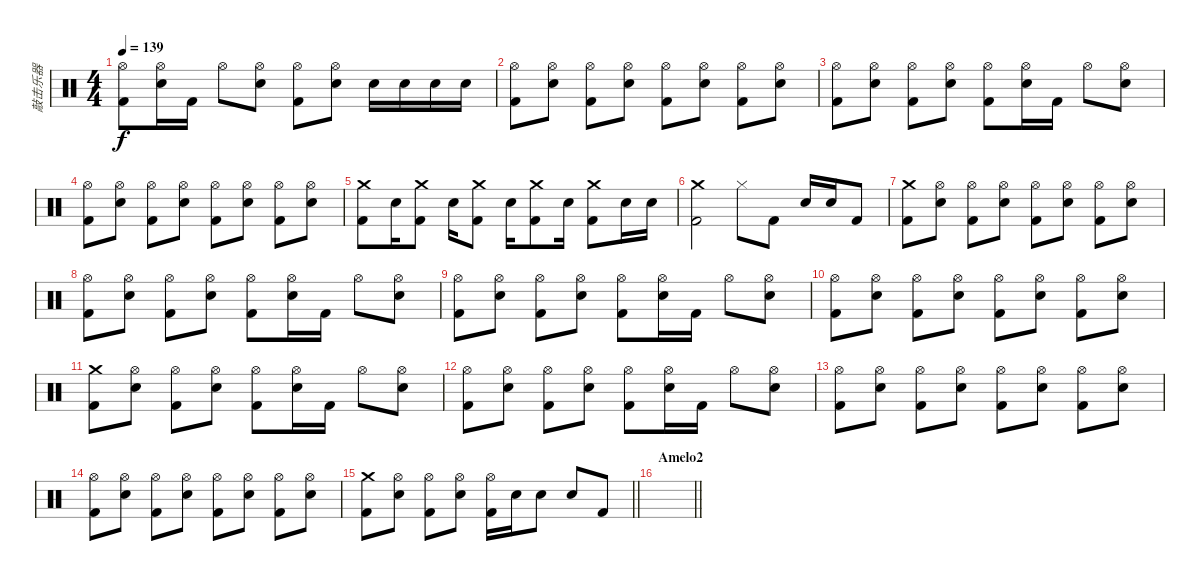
\track ("敲击乐器" "敲击乐器") {instrument percussion}
\staff {score}
\articulation defaults
\ts (4 4)
\tempo 139
\clef neutral
\ks c
("Hi-Hat (open)" "Kick (hit) 2").8{dy f} ("Hi-Hat (open)" "Electric Snare (hit)").16 "Kick (hit) 2".16 "Hi-Hat (open)".8 ("Hi-Hat (open)" "Electric Snare (hit)").8 ("Hi-Hat (open)" "Kick (hit) 2").8 ("Hi-Hat (open)" "Electric Snare (hit)").8 "Electric Snare (hit)".16 "Electric Snare (hit)".16 "Electric Snare (hit)".16 "Electric Snare (hit)".16 |
("Hi-Hat (open)" "Kick (hit) 2").8 ("Hi-Hat (open)" "Electric Snare (hit)").8 ("Hi-Hat (open)" "Kick (hit) 2").8 ("Hi-Hat (open)" "Electric Snare (hit)").8 ("Hi-Hat (open)" "Kick (hit) 2").8 ("Hi-Hat (open)" "Electric Snare (hit)").8 ("Hi-Hat (open)" "Kick (hit) 2").8 ("Hi-Hat (open)" "Electric Snare (hit)").8 |
("Hi-Hat (open)" "Kick (hit) 2").8 ("Hi-Hat (open)" "Electric Snare (hit)").8 ("Hi-Hat (open)" "Kick (hit) 2").8 ("Hi-Hat (open)" "Electric Snare (hit)").8 ("Hi-Hat (open)" "Kick (hit) 2").8 ("Hi-Hat (open)" "Electric Snare (hit)").16 "Kick (hit) 2".16 "Hi-Hat (open)".8 ("Hi-Hat (open)" "Electric Snare (hit)").8 |
("Hi-Hat (open)" "Kick (hit) 2").8 ("Hi-Hat (open)" "Electric Snare (hit)").8 ("Hi-Hat (open)" "Kick (hit) 2").8 ("Hi-Hat (open)" "Electric Snare (hit)").8 ("Hi-Hat (open)" "Kick (hit) 2").8 ("Hi-Hat (open)" "Electric Snare (hit)").8 ("Hi-Hat (open)" "Kick (hit) 2").8 ("Hi-Hat (open)" "Electric Snare (hit)").8 |
("Crash medium (hit)" "Kick (hit) 2").8 "Electric Snare (hit)".16 ("Crash medium (hit)" "Kick (hit) 2").8 "Electric Snare (hit)".16 ("Crash medium (hit)" "Kick (hit) 2").8 "Electric Snare (hit)".16 ("Crash medium (hit)" "Kick (hit) 2").8 "Electric Snare (hit)".16 ("Crash medium (hit)" "Kick (hit) 2").8 "Electric Snare (hit)".16 "Electric Snare (hit)".16 |
("Crash medium (hit)" "Kick (hit) 2").2 "Hi-Hat (closed)".8 "Kick (hit) 2".8 "Electric Snare (hit)".16 "Electric Snare (hit)".16 "Kick (hit) 2".8 |
("Crash medium (hit)" "Kick (hit) 2").8 ("Hi-Hat (open)" "Electric Snare (hit)").8 ("Hi-Hat (open)" "Kick (hit) 2").8 ("Hi-Hat (open)" "Electric Snare (hit)").8 ("Hi-Hat (open)" "Kick (hit) 2").8 ("Hi-Hat (open)" "Electric Snare (hit)").8 ("Hi-Hat (open)" "Kick (hit) 2").8 ("Hi-Hat (open)" "Electric Snare (hit)").8 |
("Hi-Hat (open)" "Kick (hit) 2").8 ("Hi-Hat (open)" "Electric Snare (hit)").8 ("Hi-Hat (open)" "Kick (hit) 2").8 ("Hi-Hat (open)" "Electric Snare (hit)").8 ("Hi-Hat (open)" "Kick (hit) 2").8 ("Hi-Hat (open)" "Electric Snare (hit)").16 "Kick (hit) 2".16 "Hi-Hat (open)".8 ("Hi-Hat (open)" "Electric Snare (hit)").8 |
("Hi-Hat (open)" "Kick (hit) 2").8 ("Hi-Hat (open)" "Electric Snare (hit)").8 ("Hi-Hat (open)" "Kick (hit) 2").8 ("Hi-Hat (open)" "Electric Snare (hit)").8 ("Hi-Hat (open)" "Kick (hit) 2").8 ("Hi-Hat (open)" "Electric Snare (hit)").16 "Kick (hit) 2".16 "Hi-Hat (open)".8 ("Hi-Hat (open)" "Electric Snare (hit)").8 |
("Hi-Hat (open)" "Kick (hit) 2").8 ("Hi-Hat (open)" "Electric Snare (hit)").8 ("Hi-Hat (open)" "Kick (hit) 2").8 ("Hi-Hat (open)" "Electric Snare (hit)").8 ("Hi-Hat (open)" "Kick (hit) 2").8 ("Hi-Hat (open)" "Electric Snare (hit)").8 ("Hi-Hat (open)" "Kick (hit) 2").8 ("Hi-Hat (open)" "Electric Snare (hit)").8 |
("Crash medium (hit)" "Kick (hit) 2").8 ("Hi-Hat (open)" "Electric Snare (hit)").8 ("Hi-Hat (open)" "Kick (hit) 2").8 ("Hi-Hat (open)" "Electric Snare (hit)").8 ("Hi-Hat (open)" "Kick (hit) 2").8 ("Hi-Hat (open)" "Electric Snare (hit)").16 "Kick (hit) 2".16 "Hi-Hat (open)".8 ("Hi-Hat (open)" "Electric Snare (hit)").8 |
("Hi-Hat (open)" "Kick (hit) 2").8 ("Hi-Hat (open)" "Electric Snare (hit)").8 ("Hi-Hat (open)" "Kick (hit) 2").8 ("Hi-Hat (open)" "Electric Snare (hit)").8 ("Hi-Hat (open)" "Kick (hit) 2").8 ("Hi-Hat (open)" "Electric Snare (hit)").16 "Kick (hit) 2".16 "Hi-Hat (open)".8 ("Hi-Hat (open)" "Electric Snare (hit)").8 |
("Hi-Hat (open)" "Kick (hit) 2").8 ("Hi-Hat (open)" "Electric Snare (hit)").8 ("Hi-Hat (open)" "Kick (hit) 2").8 ("Hi-Hat (open)" "Electric Snare (hit)").8 ("Hi-Hat (open)" "Kick (hit) 2").8 ("Hi-Hat (open)" "Electric Snare (hit)").8 ("Hi-Hat (open)" "Kick (hit) 2").8 ("Hi-Hat (open)" "Electric Snare (hit)").8 |
("Hi-Hat (open)" "Kick (hit) 2").8 ("Hi-Hat (open)" "Electric Snare (hit)").8 ("Hi-Hat (open)" "Kick (hit) 2").8 ("Hi-Hat (open)" "Electric Snare (hit)").8 ("Hi-Hat (open)" "Kick (hit) 2").8 ("Hi-Hat (open)" "Electric Snare (hit)").8 ("Hi-Hat (open)" "Kick (hit) 2").8 ("Hi-Hat (open)" "Electric Snare (hit)").8 |
\barLineRight lightlight
("Crash medium (hit)" "Kick (hit) 2").8 ("Hi-Hat (open)" "Electric Snare (hit)").8 ("Hi-Hat (open)" "Kick (hit) 2").8 ("Hi-Hat (open)" "Electric Snare (hit)").8 ("Hi-Hat (open)" "Kick (hit) 2").16 "Electric Snare (hit)".16 "Electric Snare (hit)".8 "Electric Snare (hit)".8 "Kick (hit) 2".8 |
\section ("" "Amelo2")
\barLineRight lightlight
